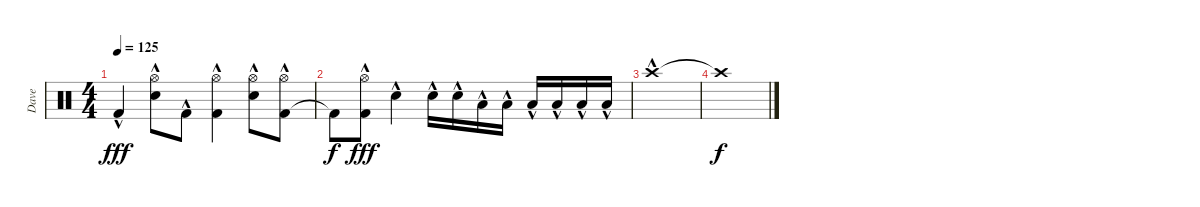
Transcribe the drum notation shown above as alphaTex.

\track ("Dave" "Dave") {instrument percussion}
\staff {score}
\articulation defaults
\ts (4 4)
\tempo 125
\clef neutral
\ks c "Kick (hit) 2"{hac}.4{dy fff}
("Electric Snare (hit)"{hac} "Hi-Hat (open)"{hac}).8 "Kick (hit) 2"{hac}.8 ("Kick (hit) 2"{hac} "Hi-Hat (open)"{hac}).4 ("Electric Snare (hit)"{hac} "Hi-Hat (open)"{hac}).8 ("Kick (hit) 2"{hac} "Hi-Hat (open)"{hac}).8 |
"Kick (hit) 2"{t}.8{dy f} ("Kick (hit) 2"{hac} "Hi-Hat (open)"{hac}).8{dy fff} "Electric Snare (hit)"{hac}.4 "Electric Snare (hit)"{hac}.16 "Electric Snare (hit)"{hac}.16 "Low Tom (hit)"{hac}.16 "Low Tom (hit)"{hac}.16 "Low Tom (hit)"{hac}.16 "Low Tom (hit)"{hac}.16 "Low Tom (hit)"{hac}.16 "Low Tom (hit)"{hac}.16 |
"Crash high (hit)"{hac}.1 |
"Crash high (hit)"{t}.1{dy f}
